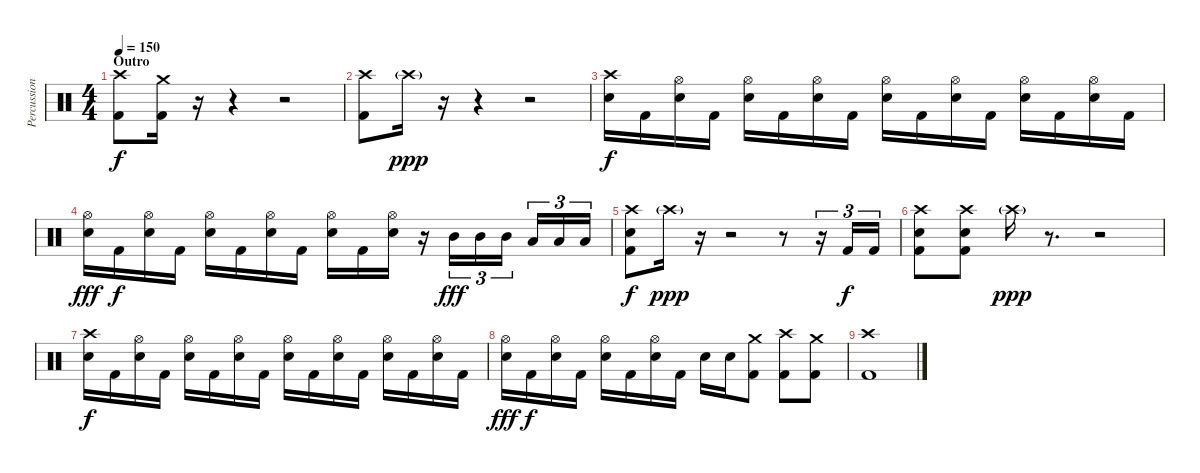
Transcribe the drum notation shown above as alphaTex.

\track ("Percussion" "Percussion") {instrument percussion}
\staff {score}
\articulation defaults
\ts (4 4)
\section ("" "Outro")
\tempo 150
\clef neutral
\ks c
("Crash high (hit)" "Kick (hit) 2").8{dy f} ("Crash medium (hit)" "Kick (hit) 2").16 r.16 r.4 r.2 |
("Crash high (hit)" "Kick (hit) 2").8 "Crash high (hit)"{g}.16{dy ppp} r.16 r.4 r.2 |
("Crash high (hit)" "Snare (hit) 2").16{dy f} "Kick (hit) 2".16 ("Hi-Hat (open)" "Snare (hit) 2").16 "Kick (hit) 2".16 ("Hi-Hat (open)" "Snare (hit) 2").16 "Kick (hit) 2".16 ("Hi-Hat (open)" "Snare (hit) 2").16 "Kick (hit) 2".16 ("Hi-Hat (open)" "Snare (hit) 2").16 "Kick (hit) 2".16 ("Hi-Hat (open)" "Snare (hit) 2").16 "Kick (hit) 2".16 ("Hi-Hat (open)" "Snare (hit) 2").16 "Kick (hit) 2".16 ("Hi-Hat (open)" "Snare (hit) 2").16 "Kick (hit) 2".16 |
("Hi-Hat (open)" "Snare (hit) 2").16{dy fff} "Kick (hit) 2".16{dy f} ("Hi-Hat (open)" "Snare (hit) 2").16 "Kick (hit) 2".16 ("Hi-Hat (open)" "Snare (hit) 2").16 "Kick (hit) 2".16 ("Hi-Hat (open)" "Snare (hit) 2").16 "Kick (hit) 2".16 ("Hi-Hat (open)" "Snare (hit) 2").16 "Kick (hit) 2".16 ("Hi-Hat (open)" "Snare (hit) 2").16 r.16 "Mid Tom (hit)".16{tu (3 2) dy fff} "Mid Tom (hit)".16{tu (3 2)} "Mid Tom (hit)".16{tu (3 2) beam splitsecondary} "Low Tom (hit)".16{tu (3 2)} "Low Tom (hit)".16{tu (3 2)} "Low Tom (hit)".16{tu (3 2)} |
("Crash high (hit)" "Snare (hit) 2" "Kick (hit) 2").8{dy f} "Crash high (hit)"{g}.16{dy ppp} r.16 r.2 r.8 r.16{tu (3 2)} "Kick (hit) 2".16{tu (3 2) dy f} "Kick (hit) 2".16{tu (3 2)} |
("Crash high (hit)" "Snare (hit) 2" "Kick (hit) 2").8 ("Crash high (hit)" "Snare (hit) 2" "Kick (hit) 2").8 "Crash high (hit)"{g}.16{dy ppp} r.8{d} r.2 |
("Crash high (hit)" "Snare (hit) 2").16{dy f} "Kick (hit) 2".16 ("Hi-Hat (open)" "Snare (hit) 2").16 "Kick (hit) 2".16 ("Hi-Hat (open)" "Snare (hit) 2").16 "Kick (hit) 2".16 ("Hi-Hat (open)" "Snare (hit) 2").16 "Kick (hit) 2".16 ("Hi-Hat (open)" "Snare (hit) 2").16 "Kick (hit) 2".16 ("Hi-Hat (open)" "Snare (hit) 2").16 "Kick (hit) 2".16 ("Hi-Hat (open)" "Snare (hit) 2").16 "Kick (hit) 2".16 ("Hi-Hat (open)" "Snare (hit) 2").16 "Kick (hit) 2".16 |
("Hi-Hat (open)" "Snare (hit) 2").16{dy fff} "Kick (hit) 2".16{dy f} ("Hi-Hat (open)" "Snare (hit) 2").16 "Kick (hit) 2".16 ("Hi-Hat (open)" "Snare (hit) 2").16 "Kick (hit) 2".16 ("Hi-Hat (open)" "Snare (hit) 2").16 "Kick (hit) 2".16 "Snare (hit) 2".16 "Snare (hit) 2".16 ("Crash medium (hit)" "Kick (hit) 2").8 ("Crash high (hit)" "Kick (hit) 2").8 ("Crash medium (hit)" "Kick (hit) 2").8 |
("Crash high (hit)" "Kick (hit) 2").1
